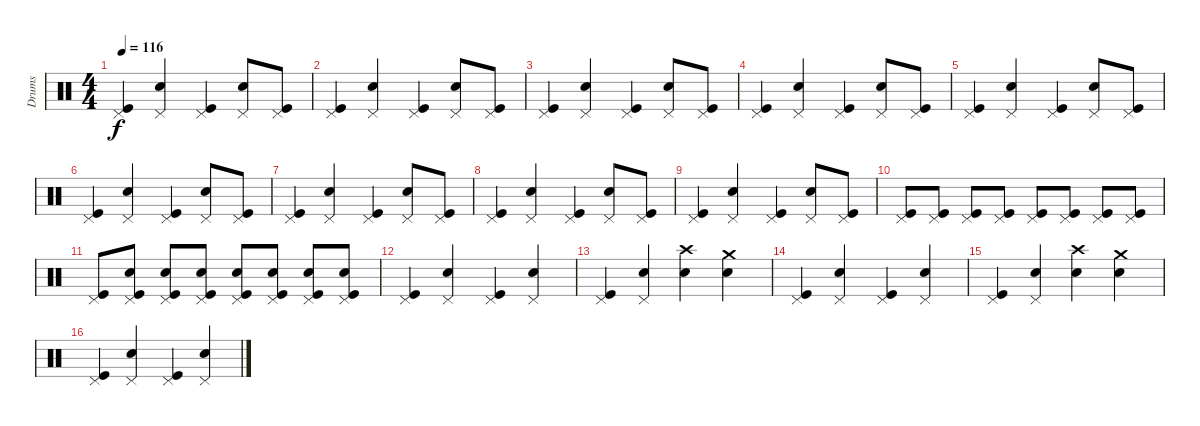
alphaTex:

\track ("Drums" "Drums") {instrument percussion}
\staff {score}
\articulation defaults
\ts (4 4)
\tempo 116
\clef neutral
\ks c
("Pedal Hi-Hat (hit)" "Kick (hit)").4{dy f} ("Pedal Hi-Hat (hit)" "Electric Snare (hit)").4 ("Pedal Hi-Hat (hit)" "Kick (hit)").4 ("Pedal Hi-Hat (hit)" "Electric Snare (hit)").8 ("Pedal Hi-Hat (hit)" "Kick (hit)").8 |
("Pedal Hi-Hat (hit)" "Kick (hit)").4 ("Pedal Hi-Hat (hit)" "Electric Snare (hit)").4 ("Pedal Hi-Hat (hit)" "Kick (hit)").4 ("Pedal Hi-Hat (hit)" "Electric Snare (hit)").8 ("Pedal Hi-Hat (hit)" "Kick (hit)").8 |
("Pedal Hi-Hat (hit)" "Kick (hit)").4 ("Pedal Hi-Hat (hit)" "Electric Snare (hit)").4 ("Pedal Hi-Hat (hit)" "Kick (hit)").4 ("Pedal Hi-Hat (hit)" "Electric Snare (hit)").8 ("Pedal Hi-Hat (hit)" "Kick (hit)").8 |
("Pedal Hi-Hat (hit)" "Kick (hit)").4 ("Pedal Hi-Hat (hit)" "Electric Snare (hit)").4 ("Pedal Hi-Hat (hit)" "Kick (hit)").4 ("Pedal Hi-Hat (hit)" "Electric Snare (hit)").8 ("Pedal Hi-Hat (hit)" "Kick (hit)").8 |
("Pedal Hi-Hat (hit)" "Kick (hit)").4 ("Pedal Hi-Hat (hit)" "Electric Snare (hit)").4 ("Pedal Hi-Hat (hit)" "Kick (hit)").4 ("Pedal Hi-Hat (hit)" "Electric Snare (hit)").8 ("Pedal Hi-Hat (hit)" "Kick (hit)").8 |
("Pedal Hi-Hat (hit)" "Kick (hit)").4 ("Pedal Hi-Hat (hit)" "Electric Snare (hit)").4 ("Pedal Hi-Hat (hit)" "Kick (hit)").4 ("Pedal Hi-Hat (hit)" "Electric Snare (hit)").8 ("Pedal Hi-Hat (hit)" "Kick (hit)").8 |
("Pedal Hi-Hat (hit)" "Kick (hit)").4 ("Pedal Hi-Hat (hit)" "Electric Snare (hit)").4 ("Pedal Hi-Hat (hit)" "Kick (hit)").4 ("Pedal Hi-Hat (hit)" "Electric Snare (hit)").8 ("Pedal Hi-Hat (hit)" "Kick (hit)").8 |
("Pedal Hi-Hat (hit)" "Kick (hit)").4 ("Pedal Hi-Hat (hit)" "Electric Snare (hit)").4 ("Pedal Hi-Hat (hit)" "Kick (hit)").4 ("Pedal Hi-Hat (hit)" "Electric Snare (hit)").8 ("Pedal Hi-Hat (hit)" "Kick (hit)").8 |
("Pedal Hi-Hat (hit)" "Kick (hit)").4 ("Pedal Hi-Hat (hit)" "Electric Snare (hit)").4 ("Pedal Hi-Hat (hit)" "Kick (hit)").4 ("Pedal Hi-Hat (hit)" "Electric Snare (hit)").8 ("Pedal Hi-Hat (hit)" "Kick (hit)").8 |
("Kick (hit)" "Pedal Hi-Hat (hit)").8 ("Kick (hit)" "Pedal Hi-Hat (hit)").8 ("Kick (hit)" "Pedal Hi-Hat (hit)").8 ("Kick (hit)" "Pedal Hi-Hat (hit)").8 ("Kick (hit)" "Pedal Hi-Hat (hit)").8 ("Pedal Hi-Hat (hit)" "Kick (hit)").8 ("Kick (hit)" "Pedal Hi-Hat (hit)").8 ("Pedal Hi-Hat (hit)" "Kick (hit)").8 |
("Pedal Hi-Hat (hit)" "Kick (hit)").8 ("Snare (hit) 2" "Pedal Hi-Hat (hit)" "Kick (hit)").8 ("Snare (hit) 2" "Pedal Hi-Hat (hit)" "Kick (hit)").8 ("Snare (hit) 2" "Pedal Hi-Hat (hit)" "Kick (hit)").8 ("Snare (hit) 2" "Pedal Hi-Hat (hit)" "Kick (hit)").8 ("Snare (hit) 2" "Pedal Hi-Hat (hit)" "Kick (hit)").8 ("Snare (hit) 2" "Pedal Hi-Hat (hit)" "Kick (hit)").8 ("Snare (hit) 2" "Pedal Hi-Hat (hit)" "Kick (hit)").8 |
("Pedal Hi-Hat (hit)" "Kick (hit)").4 ("Pedal Hi-Hat (hit)" "Electric Snare (hit)").4 ("Pedal Hi-Hat (hit)" "Kick (hit)").4 ("Pedal Hi-Hat (hit)" "Electric Snare (hit)").4 |
("Pedal Hi-Hat (hit)" "Kick (hit)").4 ("Pedal Hi-Hat (hit)" "Electric Snare (hit)").4 ("Electric Snare (hit)" "Crash high (hit)").4 ("Crash medium (hit)" "Electric Snare (hit)").4 |
("Pedal Hi-Hat (hit)" "Kick (hit)").4 ("Pedal Hi-Hat (hit)" "Electric Snare (hit)").4 ("Pedal Hi-Hat (hit)" "Kick (hit)").4 ("Pedal Hi-Hat (hit)" "Electric Snare (hit)").4 |
("Pedal Hi-Hat (hit)" "Kick (hit)").4 ("Pedal Hi-Hat (hit)" "Electric Snare (hit)").4 ("Electric Snare (hit)" "Crash high (hit)").4 ("Crash medium (hit)" "Electric Snare (hit)").4 |
("Pedal Hi-Hat (hit)" "Kick (hit)").4 ("Pedal Hi-Hat (hit)" "Electric Snare (hit)").4 ("Pedal Hi-Hat (hit)" "Kick (hit)").4 ("Pedal Hi-Hat (hit)" "Electric Snare (hit)").4
